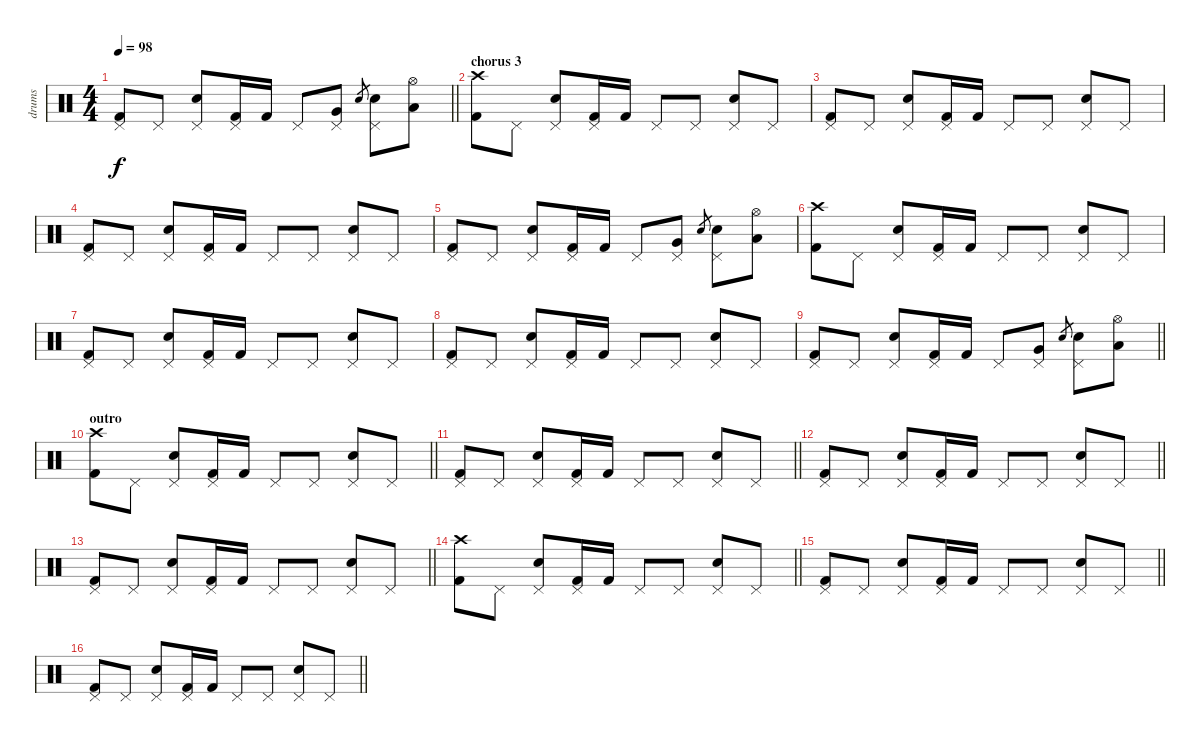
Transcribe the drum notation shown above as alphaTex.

\track ("drums" "drums") {instrument percussion}
\staff {score}
\articulation defaults
\ts (4 4)
\tempo 98
\clef neutral
\barLineRight lightlight
\ks c
("Kick (hit) 2" "Pedal Hi-Hat (hit)").8{dy f} "Pedal Hi-Hat (hit)".8 ("Electric Snare (hit)" "Pedal Hi-Hat (hit)").8 ("Kick (hit) 2" "Pedal Hi-Hat (hit)").16 "Kick (hit) 2".16 "Pedal Hi-Hat (hit)".8 ("Very Low Tom (hit)" "Pedal Hi-Hat (hit)").8 "Electric Snare (hit)".8{gr} ("Electric Snare (hit)" "Pedal Hi-Hat (hit)").8 ("Low Tom (hit)" "Hi-Hat (open)").8 |
\section ("" "chorus 3")
("Kick (hit) 2" "Crash high (hit)").8 "Pedal Hi-Hat (hit)".8 ("Electric Snare (hit)" "Pedal Hi-Hat (hit)").8 ("Kick (hit) 2" "Pedal Hi-Hat (hit)").16 "Kick (hit) 2".16 "Pedal Hi-Hat (hit)".8 "Pedal Hi-Hat (hit)".8 ("Electric Snare (hit)" "Pedal Hi-Hat (hit)").8 "Pedal Hi-Hat (hit)".8 |
("Kick (hit) 2" "Pedal Hi-Hat (hit)").8 "Pedal Hi-Hat (hit)".8 ("Electric Snare (hit)" "Pedal Hi-Hat (hit)").8 ("Kick (hit) 2" "Pedal Hi-Hat (hit)").16 "Kick (hit) 2".16 "Pedal Hi-Hat (hit)".8 "Pedal Hi-Hat (hit)".8 ("Electric Snare (hit)" "Pedal Hi-Hat (hit)").8 "Pedal Hi-Hat (hit)".8 |
("Kick (hit) 2" "Pedal Hi-Hat (hit)").8 "Pedal Hi-Hat (hit)".8 ("Electric Snare (hit)" "Pedal Hi-Hat (hit)").8 ("Kick (hit) 2" "Pedal Hi-Hat (hit)").16 "Kick (hit) 2".16 "Pedal Hi-Hat (hit)".8 "Pedal Hi-Hat (hit)".8 ("Electric Snare (hit)" "Pedal Hi-Hat (hit)").8 "Pedal Hi-Hat (hit)".8 |
("Kick (hit) 2" "Pedal Hi-Hat (hit)").8 "Pedal Hi-Hat (hit)".8 ("Electric Snare (hit)" "Pedal Hi-Hat (hit)").8 ("Kick (hit) 2" "Pedal Hi-Hat (hit)").16 "Kick (hit) 2".16 "Pedal Hi-Hat (hit)".8 ("Very Low Tom (hit)" "Pedal Hi-Hat (hit)").8 "Electric Snare (hit)".8{gr} ("Electric Snare (hit)" "Pedal Hi-Hat (hit)").8 ("Low Tom (hit)" "Hi-Hat (open)").8 |
("Kick (hit) 2" "Crash high (hit)").8 "Pedal Hi-Hat (hit)".8 ("Electric Snare (hit)" "Pedal Hi-Hat (hit)").8 ("Kick (hit) 2" "Pedal Hi-Hat (hit)").16 "Kick (hit) 2".16 "Pedal Hi-Hat (hit)".8 "Pedal Hi-Hat (hit)".8 ("Electric Snare (hit)" "Pedal Hi-Hat (hit)").8 "Pedal Hi-Hat (hit)".8 |
("Kick (hit) 2" "Pedal Hi-Hat (hit)").8 "Pedal Hi-Hat (hit)".8 ("Electric Snare (hit)" "Pedal Hi-Hat (hit)").8 ("Kick (hit) 2" "Pedal Hi-Hat (hit)").16 "Kick (hit) 2".16 "Pedal Hi-Hat (hit)".8 "Pedal Hi-Hat (hit)".8 ("Electric Snare (hit)" "Pedal Hi-Hat (hit)").8 "Pedal Hi-Hat (hit)".8 |
("Kick (hit) 2" "Pedal Hi-Hat (hit)").8 "Pedal Hi-Hat (hit)".8 ("Electric Snare (hit)" "Pedal Hi-Hat (hit)").8 ("Kick (hit) 2" "Pedal Hi-Hat (hit)").16 "Kick (hit) 2".16 "Pedal Hi-Hat (hit)".8 "Pedal Hi-Hat (hit)".8 ("Electric Snare (hit)" "Pedal Hi-Hat (hit)").8 "Pedal Hi-Hat (hit)".8 |
\barLineRight lightlight
("Kick (hit) 2" "Pedal Hi-Hat (hit)").8 "Pedal Hi-Hat (hit)".8 ("Electric Snare (hit)" "Pedal Hi-Hat (hit)").8 ("Kick (hit) 2" "Pedal Hi-Hat (hit)").16 "Kick (hit) 2".16 "Pedal Hi-Hat (hit)".8 ("Very Low Tom (hit)" "Pedal Hi-Hat (hit)").8 "Electric Snare (hit)".8{gr} ("Electric Snare (hit)" "Pedal Hi-Hat (hit)").8 ("Low Tom (hit)" "Hi-Hat (open)").8 |
\section ("" "outro")
\barLineRight lightlight
("Kick (hit) 2" "Crash high (hit)").8 "Pedal Hi-Hat (hit)".8 ("Electric Snare (hit)" "Pedal Hi-Hat (hit)").8 ("Kick (hit) 2" "Pedal Hi-Hat (hit)").16 "Kick (hit) 2".16 "Pedal Hi-Hat (hit)".8 "Pedal Hi-Hat (hit)".8 ("Electric Snare (hit)" "Pedal Hi-Hat (hit)").8 "Pedal Hi-Hat (hit)".8 |
\barLineRight lightlight
("Kick (hit) 2" "Pedal Hi-Hat (hit)").8 "Pedal Hi-Hat (hit)".8 ("Electric Snare (hit)" "Pedal Hi-Hat (hit)").8 ("Kick (hit) 2" "Pedal Hi-Hat (hit)").16 "Kick (hit) 2".16 "Pedal Hi-Hat (hit)".8 "Pedal Hi-Hat (hit)".8 ("Electric Snare (hit)" "Pedal Hi-Hat (hit)").8 "Pedal Hi-Hat (hit)".8 |
\barLineRight lightlight
("Kick (hit) 2" "Pedal Hi-Hat (hit)").8 "Pedal Hi-Hat (hit)".8 ("Electric Snare (hit)" "Pedal Hi-Hat (hit)").8 ("Kick (hit) 2" "Pedal Hi-Hat (hit)").16 "Kick (hit) 2".16 "Pedal Hi-Hat (hit)".8 "Pedal Hi-Hat (hit)".8 ("Electric Snare (hit)" "Pedal Hi-Hat (hit)").8 "Pedal Hi-Hat (hit)".8 |
\barLineRight lightlight
("Kick (hit) 2" "Pedal Hi-Hat (hit)").8 "Pedal Hi-Hat (hit)".8 ("Electric Snare (hit)" "Pedal Hi-Hat (hit)").8 ("Kick (hit) 2" "Pedal Hi-Hat (hit)").16 "Kick (hit) 2".16 "Pedal Hi-Hat (hit)".8 "Pedal Hi-Hat (hit)".8 ("Electric Snare (hit)" "Pedal Hi-Hat (hit)").8 "Pedal Hi-Hat (hit)".8 |
\barLineRight lightlight
("Kick (hit) 2" "Crash high (hit)").8 "Pedal Hi-Hat (hit)".8 ("Electric Snare (hit)" "Pedal Hi-Hat (hit)").8 ("Kick (hit) 2" "Pedal Hi-Hat (hit)").16 "Kick (hit) 2".16 "Pedal Hi-Hat (hit)".8 "Pedal Hi-Hat (hit)".8 ("Electric Snare (hit)" "Pedal Hi-Hat (hit)").8 "Pedal Hi-Hat (hit)".8 |
\barLineRight lightlight
("Kick (hit) 2" "Pedal Hi-Hat (hit)").8 "Pedal Hi-Hat (hit)".8 ("Electric Snare (hit)" "Pedal Hi-Hat (hit)").8 ("Kick (hit) 2" "Pedal Hi-Hat (hit)").16 "Kick (hit) 2".16 "Pedal Hi-Hat (hit)".8 "Pedal Hi-Hat (hit)".8 ("Electric Snare (hit)" "Pedal Hi-Hat (hit)").8 "Pedal Hi-Hat (hit)".8 |
\barLineRight lightlight
("Kick (hit) 2" "Pedal Hi-Hat (hit)").8 "Pedal Hi-Hat (hit)".8 ("Electric Snare (hit)" "Pedal Hi-Hat (hit)").8 ("Kick (hit) 2" "Pedal Hi-Hat (hit)").16 "Kick (hit) 2".16 "Pedal Hi-Hat (hit)".8 "Pedal Hi-Hat (hit)".8 ("Electric Snare (hit)" "Pedal Hi-Hat (hit)").8 "Pedal Hi-Hat (hit)".8
